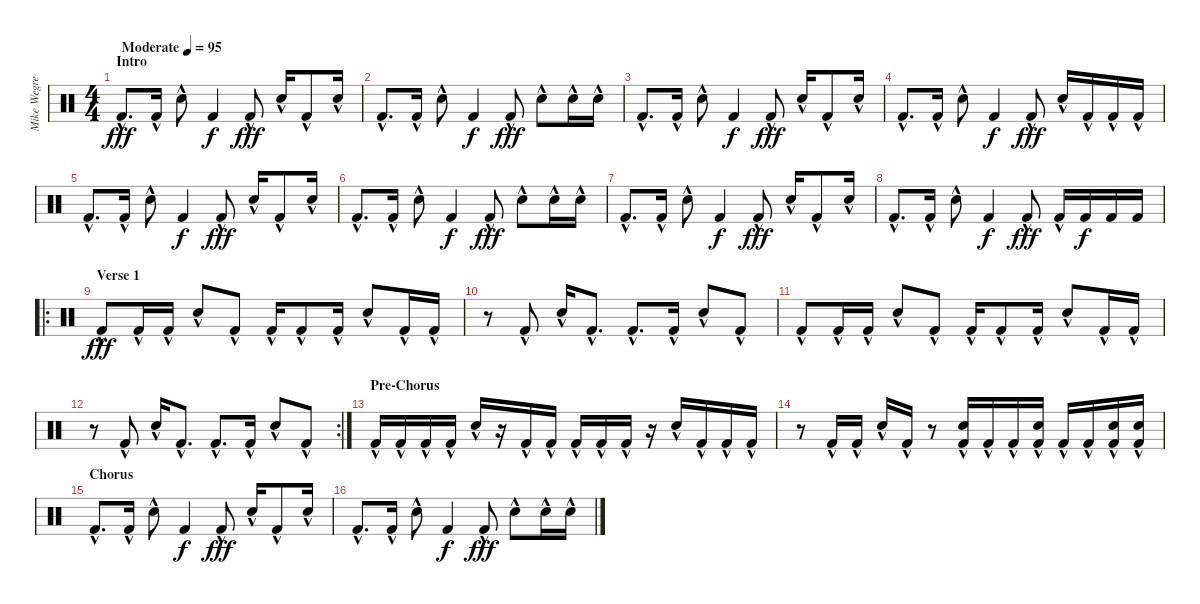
\track ("Mike Wegren 2" "Mike Wegre") {instrument percussion}
\staff {score}
\articulation defaults
\ts (4 4)
\section ("" "Intro")
\tempo (95 "Moderate")
\clef neutral
\ks c "Kick (hit) 2"{hac}.8{d dy fff} "Kick (hit) 2"{hac}.16 "Snare (hit) 2"{hac}.8 "Kick (hit) 2".4{dy f} "Kick (hit) 2"{hac}.8{dy fff} "Snare (hit) 2"{hac}.16 "Kick (hit) 2"{hac}.8 "Snare (hit) 2"{hac}.16
|
"Kick (hit) 2"{hac}.8{d} "Kick (hit) 2"{hac}.16 "Snare (hit) 2"{hac}.8 "Kick (hit) 2".4{dy f} "Kick (hit) 2"{hac}.8{dy fff} "Snare (hit) 2"{hac}.8 "Snare (hit) 2"{hac}.16 "Snare (hit) 2"{hac}.16 |
"Kick (hit) 2"{hac}.8{d} "Kick (hit) 2"{hac}.16 "Snare (hit) 2"{hac}.8 "Kick (hit) 2".4{dy f} "Kick (hit) 2"{hac}.8{dy fff} "Snare (hit) 2"{hac}.16 "Kick (hit) 2"{hac}.8 "Snare (hit) 2"{hac}.16 |
"Kick (hit) 2"{hac}.8{d} "Kick (hit) 2"{hac}.16 "Snare (hit) 2"{hac}.8 "Kick (hit) 2".4{dy f} "Kick (hit) 2"{hac}.8{dy fff} "Snare (hit) 2"{hac}.16 "Kick (hit) 2"{hac}.16 "Kick (hit) 2"{hac}.16 "Kick (hit) 2"{hac}.16 |
"Kick (hit) 2"{hac}.8{d} "Kick (hit) 2"{hac}.16 "Snare (hit) 2"{hac}.8 "Kick (hit) 2".4{dy f} "Kick (hit) 2"{hac}.8{dy fff} "Snare (hit) 2"{hac}.16 "Kick (hit) 2"{hac}.8 "Snare (hit) 2"{hac}.16 |
"Kick (hit) 2"{hac}.8{d} "Kick (hit) 2"{hac}.16 "Snare (hit) 2"{hac}.8 "Kick (hit) 2".4{dy f} "Kick (hit) 2"{hac}.8{dy fff} "Snare (hit) 2"{hac}.8 "Snare (hit) 2"{hac}.16 "Snare (hit) 2"{hac}.16 |
"Kick (hit) 2"{hac}.8{d} "Kick (hit) 2"{hac}.16 "Snare (hit) 2"{hac}.8 "Kick (hit) 2".4{dy f} "Kick (hit) 2"{hac}.8{dy fff} "Snare (hit) 2"{hac}.16 "Kick (hit) 2"{hac}.8 "Snare (hit) 2"{hac}.16 |
"Kick (hit) 2"{hac}.8{d} "Kick (hit) 2"{hac}.16 "Snare (hit) 2"{hac}.8 "Kick (hit) 2".4{dy f} "Kick (hit) 2"{hac}.8{dy fff} "Kick (hit) 2"{hac}.16 "Kick (hit) 2".16{dy f} "Kick (hit) 2".16 "Kick (hit) 2".16 |
\ro
\section ("" "Verse 1")
"Kick (hit) 2"{hac}.8{dy fff} "Kick (hit) 2"{hac}.16 "Kick (hit) 2"{hac}.16 "Snare (hit) 2"{hac}.8 "Kick (hit) 2"{hac}.8 "Kick (hit) 2"{hac}.16 "Kick (hit) 2"{hac}.8 "Kick (hit) 2"{hac}.16 "Snare (hit) 2"{hac}.8 "Kick (hit) 2"{hac}.16 "Kick (hit) 2"{hac}.16 |
r.8 "Kick (hit) 2"{hac}.8 "Snare (hit) 2"{hac}.16 "Kick (hit) 2"{hac}.8{d} "Kick (hit) 2"{hac}.8{d} "Kick (hit) 2"{hac}.16 "Snare (hit) 2"{hac}.8 "Kick (hit) 2"{hac}.8 |
"Kick (hit) 2"{hac}.8 "Kick (hit) 2"{hac}.16 "Kick (hit) 2"{hac}.16 "Snare (hit) 2"{hac}.8 "Kick (hit) 2"{hac}.8 "Kick (hit) 2"{hac}.16 "Kick (hit) 2"{hac}.8 "Kick (hit) 2"{hac}.16 "Snare (hit) 2"{hac}.8 "Kick (hit) 2"{hac}.16 "Kick (hit) 2"{hac}.16 |
\rc 2
r.8 "Kick (hit) 2"{hac}.8 "Snare (hit) 2"{hac}.16 "Kick (hit) 2"{hac}.8{d} "Kick (hit) 2"{hac}.8{d} "Kick (hit) 2"{hac}.16 "Snare (hit) 2"{hac}.8 "Kick (hit) 2"{hac}.8 |
\section ("" "Pre-Chorus")
"Kick (hit) 2"{hac}.16 "Kick (hit) 2"{hac}.16 "Kick (hit) 2"{hac}.16 "Kick (hit) 2"{hac}.16 "Snare (hit) 2"{hac}.16 r.16 "Kick (hit) 2"{hac}.16 "Kick (hit) 2"{hac}.16 "Kick (hit) 2"{hac}.16 "Kick (hit) 2"{hac}.16 "Kick (hit) 2"{hac}.16 r.16 "Snare (hit) 2"{hac}.16 "Kick (hit) 2"{hac}.16 "Kick (hit) 2"{hac}.16 "Kick (hit) 2"{hac}.16 |
r.8 "Kick (hit) 2"{hac}.16 "Kick (hit) 2"{hac}.16 "Snare (hit) 2"{hac}.16 "Kick (hit) 2"{hac}.16 r.8 ("Snare (hit) 2"{hac} "Kick (hit) 2"{hac}).16 "Kick (hit) 2"{hac}.16 "Kick (hit) 2"{hac}.16 ("Snare (hit) 2"{hac} "Kick (hit) 2"{hac}).16 "Kick (hit) 2"{hac}.16 "Kick (hit) 2"{hac}.16 ("Snare (hit) 2"{hac} "Kick (hit) 2"{hac}).16 ("Snare (hit) 2"{hac} "Kick (hit) 2"{hac}).16 |
\section ("" "Chorus")
"Kick (hit) 2"{hac}.8{d} "Kick (hit) 2"{hac}.16 "Snare (hit) 2"{hac}.8 "Kick (hit) 2".4{dy f} "Kick (hit) 2"{hac}.8{dy fff} "Snare (hit) 2"{hac}.16 "Kick (hit) 2"{hac}.8 "Snare (hit) 2"{hac}.16 |
"Kick (hit) 2"{hac}.8{d} "Kick (hit) 2"{hac}.16 "Snare (hit) 2"{hac}.8 "Kick (hit) 2".4{dy f} "Kick (hit) 2"{hac}.8{dy fff} "Snare (hit) 2"{hac}.8 "Snare (hit) 2"{hac}.16 "Snare (hit) 2"{hac}.16
